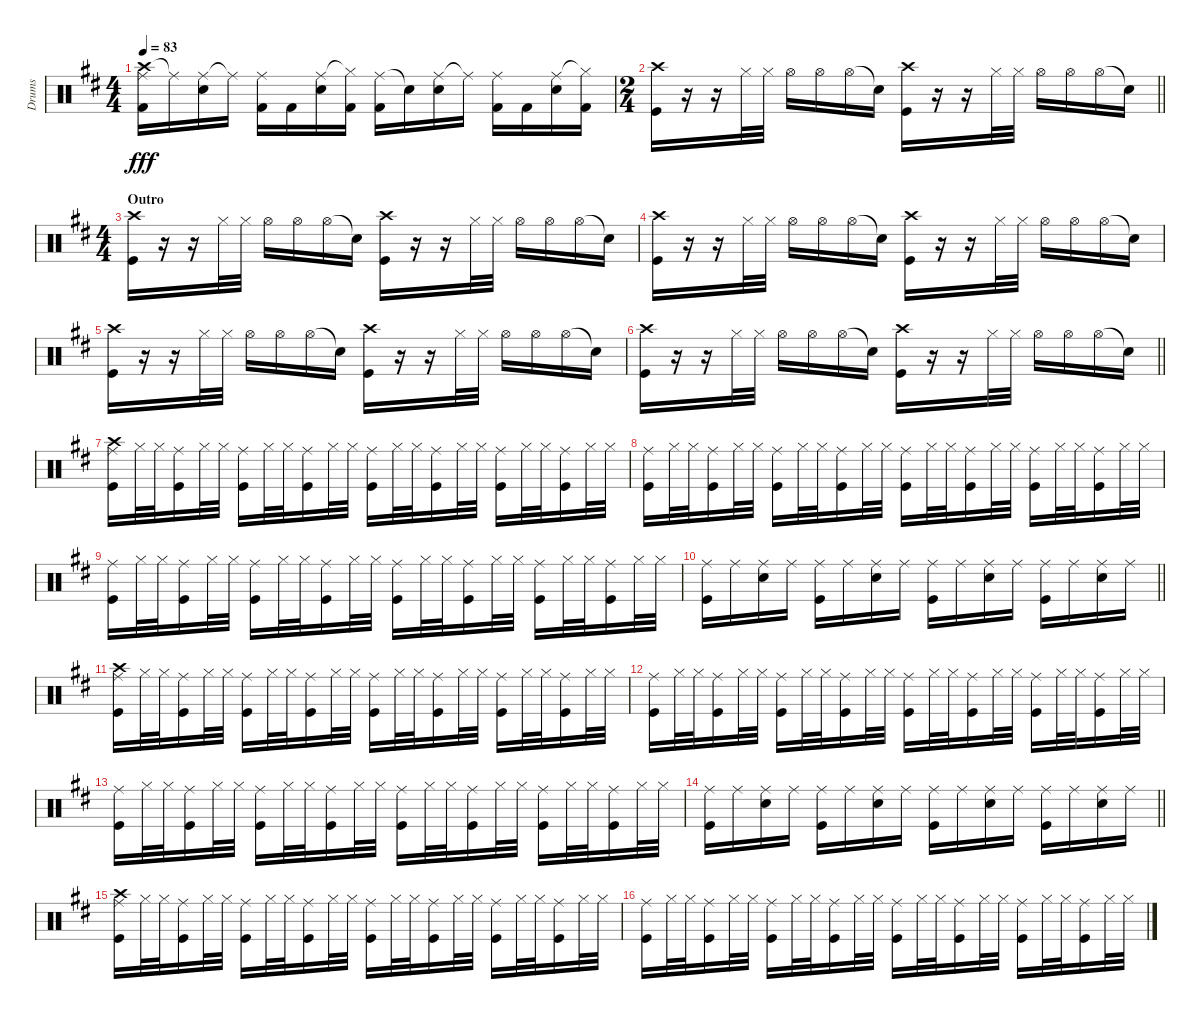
\track ("Drums" "Drums") {instrument percussion}
\staff {score}
\articulation defaults
\ts (4 4)
\tempo 83
\clef neutral
\ks d
("Crash high (hit)" "Ride (middle)" "Kick (hit) 2").16{dy fff} "Ride (middle)"{t}.16 ("Ride (middle)" "Electric Snare (hit)").16 "Ride (middle)"{t}.16 ("Ride (middle)" "Kick (hit) 2").16 "Kick (hit) 2".16 ("Ride (middle)" "Electric Snare (hit)").16 ("Hi-Hat (closed)"{t} "Kick (hit) 2").16 ("Ride (middle)" "Kick (hit) 2").16 "Snare (hit)"{t}.16 ("Ride (middle)" "Electric Snare (hit)").16 "Ride (middle)"{t}.16 ("Ride (middle)" "Kick (hit) 2").16 "Kick (hit) 2".16 ("Ride (middle)" "Electric Snare (hit)").16 ("Hi-Hat (closed)"{t} "Kick (hit) 2").16 |
\ts (2 4)
\barLineRight lightlight
("Crash high (hit)" "Kick (hit)").16 r.16 r.16 "Hi-Hat (closed)".32 "Hi-Hat (closed)".32 "Hi-Hat (open)".16 "Hi-Hat (open)".16 "Hi-Hat (open)".16 "Snare (hit)"{t}.16 ("Crash high (hit)" "Kick (hit)").16 r.16 r.16 "Hi-Hat (closed)".32 "Hi-Hat (closed)".32 "Hi-Hat (open)".16 "Hi-Hat (open)".16 "Hi-Hat (open)".16 "Snare (hit)"{t}.16 |
\ts (4 4)
\section ("" "Outro")
("Crash high (hit)" "Kick (hit)").16 r.16 r.16 "Hi-Hat (closed)".32 "Hi-Hat (closed)".32 "Hi-Hat (open)".16 "Hi-Hat (open)".16 "Hi-Hat (open)".16 "Snare (hit)"{t}.16 ("Crash high (hit)" "Kick (hit)").16 r.16 r.16 "Hi-Hat (closed)".32 "Hi-Hat (closed)".32 "Hi-Hat (open)".16 "Hi-Hat (open)".16 "Hi-Hat (open)".16 "Snare (hit)"{t}.16 |
("Crash high (hit)" "Kick (hit)").16 r.16 r.16 "Hi-Hat (closed)".32 "Hi-Hat (closed)".32 "Hi-Hat (open)".16 "Hi-Hat (open)".16 "Hi-Hat (open)".16 "Snare (hit)"{t}.16 ("Crash high (hit)" "Kick (hit)").16 r.16 r.16 "Hi-Hat (closed)".32 "Hi-Hat (closed)".32 "Hi-Hat (open)".16 "Hi-Hat (open)".16 "Hi-Hat (open)".16 "Snare (hit)"{t}.16 |
("Crash high (hit)" "Kick (hit)").16 r.16 r.16 "Hi-Hat (closed)".32 "Hi-Hat (closed)".32 "Hi-Hat (open)".16 "Hi-Hat (open)".16 "Hi-Hat (open)".16 "Snare (hit)"{t}.16 ("Crash high (hit)" "Kick (hit)").16 r.16 r.16 "Hi-Hat (closed)".32 "Hi-Hat (closed)".32 "Hi-Hat (open)".16 "Hi-Hat (open)".16 "Hi-Hat (open)".16 "Snare (hit)"{t}.16 |
\barLineRight lightlight
("Crash high (hit)" "Kick (hit)").16 r.16 r.16 "Hi-Hat (closed)".32 "Hi-Hat (closed)".32 "Hi-Hat (open)".16 "Hi-Hat (open)".16 "Hi-Hat (open)".16 "Snare (hit)"{t}.16 ("Crash high (hit)" "Kick (hit)").16 r.16 r.16 "Hi-Hat (closed)".32 "Hi-Hat (closed)".32 "Hi-Hat (open)".16 "Hi-Hat (open)".16 "Hi-Hat (open)".16 "Snare (hit)"{t}.16 |
("Crash high (hit)" "Ride (middle)" "Kick (hit)").16 "Hi-Hat (closed)".32 "Hi-Hat (closed)".32 ("Ride (middle)" "Kick (hit)").16 "Hi-Hat (closed)".32 "Hi-Hat (closed)".32 ("Ride (middle)" "Kick (hit)").16 "Hi-Hat (closed)".32 "Hi-Hat (closed)".32 ("Ride (middle)" "Kick (hit)").16 "Hi-Hat (closed)".32 "Hi-Hat (closed)".32 ("Ride (middle)" "Kick (hit)").16 "Hi-Hat (closed)".32 "Hi-Hat (closed)".32 ("Ride (middle)" "Kick (hit)").16 "Hi-Hat (closed)".32 "Hi-Hat (closed)".32 ("Ride (middle)" "Kick (hit)").16 "Hi-Hat (closed)".32 "Hi-Hat (closed)".32 ("Ride (middle)" "Kick (hit)").16 "Hi-Hat (closed)".32 "Hi-Hat (closed)".32 |
("Ride (middle)" "Kick (hit)").16 "Hi-Hat (closed)".32 "Hi-Hat (closed)".32 ("Ride (middle)" "Kick (hit)").16 "Hi-Hat (closed)".32 "Hi-Hat (closed)".32 ("Ride (middle)" "Kick (hit)").16 "Hi-Hat (closed)".32 "Hi-Hat (closed)".32 ("Ride (middle)" "Kick (hit)").16 "Hi-Hat (closed)".32 "Hi-Hat (closed)".32 ("Ride (middle)" "Kick (hit)").16 "Hi-Hat (closed)".32 "Hi-Hat (closed)".32 ("Ride (middle)" "Kick (hit)").16 "Hi-Hat (closed)".32 "Hi-Hat (closed)".32 ("Ride (middle)" "Kick (hit)").16 "Hi-Hat (closed)".32 "Hi-Hat (closed)".32 ("Ride (middle)" "Kick (hit)").16 "Hi-Hat (closed)".32 "Hi-Hat (closed)".32 |
("Ride (middle)" "Kick (hit)").16 "Hi-Hat (closed)".32 "Hi-Hat (closed)".32 ("Ride (middle)" "Kick (hit)").16 "Hi-Hat (closed)".32 "Hi-Hat (closed)".32 ("Ride (middle)" "Kick (hit)").16 "Hi-Hat (closed)".32 "Hi-Hat (closed)".32 ("Ride (middle)" "Kick (hit)").16 "Hi-Hat (closed)".32 "Hi-Hat (closed)".32 ("Ride (middle)" "Kick (hit)").16 "Hi-Hat (closed)".32 "Hi-Hat (closed)".32 ("Ride (middle)" "Kick (hit)").16 "Hi-Hat (closed)".32 "Hi-Hat (closed)".32 ("Ride (middle)" "Kick (hit)").16 "Hi-Hat (closed)".32 "Hi-Hat (closed)".32 ("Ride (middle)" "Kick (hit)").16 "Hi-Hat (closed)".32 "Hi-Hat (closed)".32 |
\barLineRight lightlight
("Ride (middle)" "Kick (hit)").16 "Ride (middle)".16 ("Ride (middle)" "Electric Snare (hit)").16 "Ride (middle)".16 ("Ride (middle)" "Kick (hit)").16 "Ride (middle)".16 ("Ride (middle)" "Electric Snare (hit)").16 "Ride (middle)".16 ("Ride (middle)" "Kick (hit)").16 "Ride (middle)".16 ("Ride (middle)" "Electric Snare (hit)").16 "Ride (middle)".16 ("Ride (middle)" "Kick (hit)").16 "Ride (middle)".16 ("Ride (middle)" "Electric Snare (hit)").16 "Ride (middle)".16 |
("Crash high (hit)" "Ride (middle)" "Kick (hit)").16 "Hi-Hat (closed)".32 "Hi-Hat (closed)".32 ("Ride (middle)" "Kick (hit)").16 "Hi-Hat (closed)".32 "Hi-Hat (closed)".32 ("Ride (middle)" "Kick (hit)").16 "Hi-Hat (closed)".32 "Hi-Hat (closed)".32 ("Ride (middle)" "Kick (hit)").16 "Hi-Hat (closed)".32 "Hi-Hat (closed)".32 ("Ride (middle)" "Kick (hit)").16 "Hi-Hat (closed)".32 "Hi-Hat (closed)".32 ("Ride (middle)" "Kick (hit)").16 "Hi-Hat (closed)".32 "Hi-Hat (closed)".32 ("Ride (middle)" "Kick (hit)").16 "Hi-Hat (closed)".32 "Hi-Hat (closed)".32 ("Ride (middle)" "Kick (hit)").16 "Hi-Hat (closed)".32 "Hi-Hat (closed)".32 |
("Ride (middle)" "Kick (hit)").16 "Hi-Hat (closed)".32 "Hi-Hat (closed)".32 ("Ride (middle)" "Kick (hit)").16 "Hi-Hat (closed)".32 "Hi-Hat (closed)".32 ("Ride (middle)" "Kick (hit)").16 "Hi-Hat (closed)".32 "Hi-Hat (closed)".32 ("Ride (middle)" "Kick (hit)").16 "Hi-Hat (closed)".32 "Hi-Hat (closed)".32 ("Ride (middle)" "Kick (hit)").16 "Hi-Hat (closed)".32 "Hi-Hat (closed)".32 ("Ride (middle)" "Kick (hit)").16 "Hi-Hat (closed)".32 "Hi-Hat (closed)".32 ("Ride (middle)" "Kick (hit)").16 "Hi-Hat (closed)".32 "Hi-Hat (closed)".32 ("Ride (middle)" "Kick (hit)").16 "Hi-Hat (closed)".32 "Hi-Hat (closed)".32 |
("Ride (middle)" "Kick (hit)").16 "Hi-Hat (closed)".32 "Hi-Hat (closed)".32 ("Ride (middle)" "Kick (hit)").16 "Hi-Hat (closed)".32 "Hi-Hat (closed)".32 ("Ride (middle)" "Kick (hit)").16 "Hi-Hat (closed)".32 "Hi-Hat (closed)".32 ("Ride (middle)" "Kick (hit)").16 "Hi-Hat (closed)".32 "Hi-Hat (closed)".32 ("Ride (middle)" "Kick (hit)").16 "Hi-Hat (closed)".32 "Hi-Hat (closed)".32 ("Ride (middle)" "Kick (hit)").16 "Hi-Hat (closed)".32 "Hi-Hat (closed)".32 ("Ride (middle)" "Kick (hit)").16 "Hi-Hat (closed)".32 "Hi-Hat (closed)".32 ("Ride (middle)" "Kick (hit)").16 "Hi-Hat (closed)".32 "Hi-Hat (closed)".32 |
\barLineRight lightlight
("Ride (middle)" "Kick (hit)").16 "Ride (middle)".16 ("Ride (middle)" "Electric Snare (hit)").16 "Ride (middle)".16 ("Ride (middle)" "Kick (hit)").16 "Ride (middle)".16 ("Ride (middle)" "Electric Snare (hit)").16 "Ride (middle)".16 ("Ride (middle)" "Kick (hit)").16 "Ride (middle)".16 ("Ride (middle)" "Electric Snare (hit)").16 "Ride (middle)".16 ("Ride (middle)" "Kick (hit)").16 "Ride (middle)".16 ("Ride (middle)" "Electric Snare (hit)").16 "Ride (middle)".16 |
("Crash high (hit)" "Ride (middle)" "Kick (hit)").16 "Hi-Hat (closed)".32 "Hi-Hat (closed)".32 ("Ride (middle)" "Kick (hit)").16 "Hi-Hat (closed)".32 "Hi-Hat (closed)".32 ("Ride (middle)" "Kick (hit)").16 "Hi-Hat (closed)".32 "Hi-Hat (closed)".32 ("Ride (middle)" "Kick (hit)").16 "Hi-Hat (closed)".32 "Hi-Hat (closed)".32 ("Ride (middle)" "Kick (hit)").16 "Hi-Hat (closed)".32 "Hi-Hat (closed)".32 ("Ride (middle)" "Kick (hit)").16 "Hi-Hat (closed)".32 "Hi-Hat (closed)".32 ("Ride (middle)" "Kick (hit)").16 "Hi-Hat (closed)".32 "Hi-Hat (closed)".32 ("Ride (middle)" "Kick (hit)").16 "Hi-Hat (closed)".32 "Hi-Hat (closed)".32 |
("Ride (middle)" "Kick (hit)").16 "Hi-Hat (closed)".32 "Hi-Hat (closed)".32 ("Ride (middle)" "Kick (hit)").16 "Hi-Hat (closed)".32 "Hi-Hat (closed)".32 ("Ride (middle)" "Kick (hit)").16 "Hi-Hat (closed)".32 "Hi-Hat (closed)".32 ("Ride (middle)" "Kick (hit)").16 "Hi-Hat (closed)".32 "Hi-Hat (closed)".32 ("Ride (middle)" "Kick (hit)").16 "Hi-Hat (closed)".32 "Hi-Hat (closed)".32 ("Ride (middle)" "Kick (hit)").16 "Hi-Hat (closed)".32 "Hi-Hat (closed)".32 ("Ride (middle)" "Kick (hit)").16 "Hi-Hat (closed)".32 "Hi-Hat (closed)".32 ("Ride (middle)" "Kick (hit)").16 "Hi-Hat (closed)".32 "Hi-Hat (closed)".32
